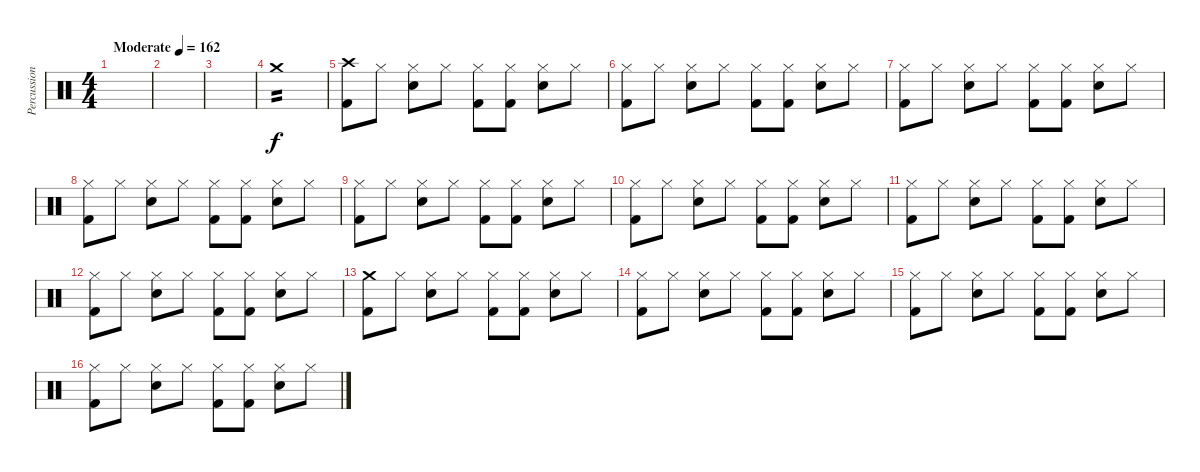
\track ("Percussion" "Percussion") {instrument percussion}
\staff {score}
\articulation defaults
\ts (4 4)
\tempo (162 "Moderate")
\clef neutral
\ks c
|
|
|
"Crash medium (hit)".1{tp 2} |
("Crash high (hit)" "Kick (hit) 2").8 "Hi-Hat (closed)".8 ("Hi-Hat (closed)" "Electric Snare (hit)").8 "Hi-Hat (closed)".8 ("Hi-Hat (closed)" "Kick (hit) 2").8 ("Hi-Hat (closed)" "Kick (hit) 2").8 ("Hi-Hat (closed)" "Electric Snare (hit)").8 "Hi-Hat (closed)".8 |
("Hi-Hat (closed)" "Kick (hit) 2").8 "Hi-Hat (closed)".8 ("Hi-Hat (closed)" "Electric Snare (hit)").8 "Hi-Hat (closed)".8 ("Hi-Hat (closed)" "Kick (hit) 2").8 ("Hi-Hat (closed)" "Kick (hit) 2").8 ("Hi-Hat (closed)" "Electric Snare (hit)").8 "Hi-Hat (closed)".8 |
("Hi-Hat (closed)" "Kick (hit) 2").8 "Hi-Hat (closed)".8 ("Hi-Hat (closed)" "Electric Snare (hit)").8 "Hi-Hat (closed)".8 ("Hi-Hat (closed)" "Kick (hit) 2").8 ("Hi-Hat (closed)" "Kick (hit) 2").8 ("Hi-Hat (closed)" "Electric Snare (hit)").8 "Hi-Hat (closed)".8 |
("Hi-Hat (closed)" "Kick (hit) 2").8 "Hi-Hat (closed)".8 ("Hi-Hat (closed)" "Electric Snare (hit)").8 "Hi-Hat (closed)".8 ("Hi-Hat (closed)" "Kick (hit) 2").8 ("Hi-Hat (closed)" "Kick (hit) 2").8 ("Hi-Hat (closed)" "Electric Snare (hit)").8 "Hi-Hat (closed)".8 |
("Hi-Hat (closed)" "Kick (hit) 2").8 "Hi-Hat (closed)".8 ("Hi-Hat (closed)" "Electric Snare (hit)").8 "Hi-Hat (closed)".8 ("Hi-Hat (closed)" "Kick (hit) 2").8 ("Hi-Hat (closed)" "Kick (hit) 2").8 ("Hi-Hat (closed)" "Electric Snare (hit)").8 "Hi-Hat (closed)".8 |
("Hi-Hat (closed)" "Kick (hit) 2").8 "Hi-Hat (closed)".8 ("Hi-Hat (closed)" "Electric Snare (hit)").8 "Hi-Hat (closed)".8 ("Hi-Hat (closed)" "Kick (hit) 2").8 ("Hi-Hat (closed)" "Kick (hit) 2").8 ("Hi-Hat (closed)" "Electric Snare (hit)").8 "Hi-Hat (closed)".8 |
("Hi-Hat (closed)" "Kick (hit) 2").8 "Hi-Hat (closed)".8 ("Hi-Hat (closed)" "Electric Snare (hit)").8 "Hi-Hat (closed)".8 ("Hi-Hat (closed)" "Kick (hit) 2").8 ("Hi-Hat (closed)" "Kick (hit) 2").8 ("Hi-Hat (closed)" "Electric Snare (hit)").8 "Hi-Hat (closed)".8 |
("Hi-Hat (closed)" "Kick (hit) 2").8 "Hi-Hat (closed)".8 ("Hi-Hat (closed)" "Electric Snare (hit)").8 "Hi-Hat (closed)".8 ("Hi-Hat (closed)" "Kick (hit) 2").8 ("Hi-Hat (closed)" "Kick (hit) 2").8 ("Hi-Hat (closed)" "Electric Snare (hit)").8 "Hi-Hat (closed)".8 |
("Crash medium (hit)" "Kick (hit) 2").8 "Hi-Hat (closed)".8 ("Hi-Hat (closed)" "Electric Snare (hit)").8 "Hi-Hat (closed)".8 ("Hi-Hat (closed)" "Kick (hit) 2").8 ("Hi-Hat (closed)" "Kick (hit) 2").8 ("Hi-Hat (closed)" "Electric Snare (hit)").8 "Hi-Hat (closed)".8 |
("Hi-Hat (closed)" "Kick (hit) 2").8 "Hi-Hat (closed)".8 ("Hi-Hat (closed)" "Electric Snare (hit)").8 "Hi-Hat (closed)".8 ("Hi-Hat (closed)" "Kick (hit) 2").8 ("Hi-Hat (closed)" "Kick (hit) 2").8 ("Hi-Hat (closed)" "Electric Snare (hit)").8 "Hi-Hat (closed)".8 |
("Hi-Hat (closed)" "Kick (hit) 2").8 "Hi-Hat (closed)".8 ("Hi-Hat (closed)" "Electric Snare (hit)").8 "Hi-Hat (closed)".8 ("Hi-Hat (closed)" "Kick (hit) 2").8 ("Hi-Hat (closed)" "Kick (hit) 2").8 ("Hi-Hat (closed)" "Electric Snare (hit)").8 "Hi-Hat (closed)".8 |
("Hi-Hat (closed)" "Kick (hit) 2").8 "Hi-Hat (closed)".8 ("Hi-Hat (closed)" "Electric Snare (hit)").8 "Hi-Hat (closed)".8 ("Hi-Hat (closed)" "Kick (hit) 2").8 ("Hi-Hat (closed)" "Kick (hit) 2").8 ("Hi-Hat (closed)" "Electric Snare (hit)").8 "Hi-Hat (closed)".8
